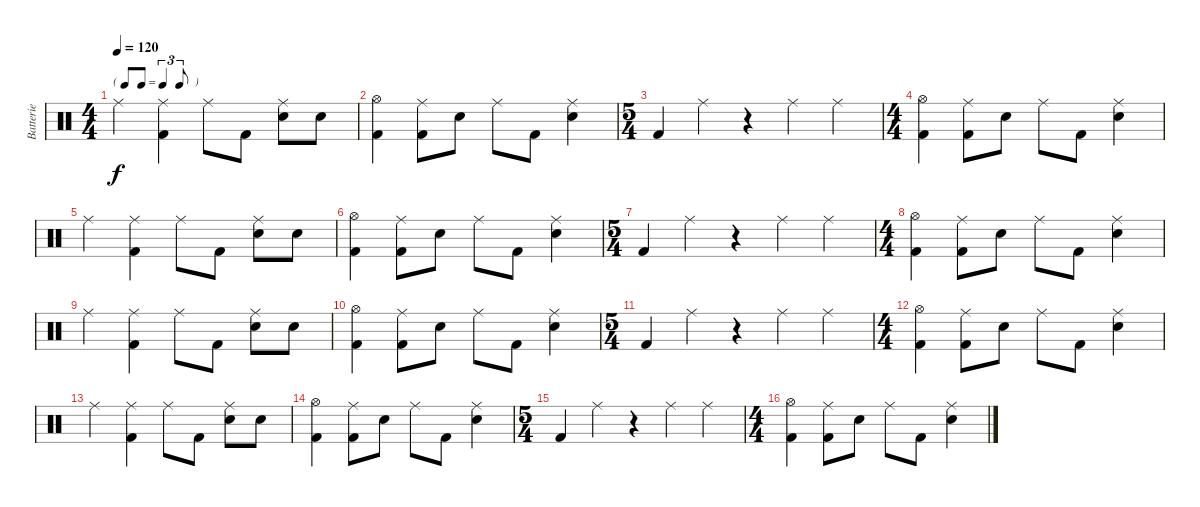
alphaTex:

\track ("Batterie" "Batterie") {instrument percussion}
\staff {score}
\articulation defaults
\ts (4 4)
\tf triplet8th
\tempo 120
\clef neutral
\ks c "Ride (middle)".4{dy f}
("Ride (middle)" "Kick (hit) 2").4 "Ride (middle)".8 "Kick (hit) 2".8 ("Ride (middle)" "Electric Snare (hit)").8 "Electric Snare (hit)".8 |
("Hi-Hat (open)" "Kick (hit) 2").4 ("Ride (middle)" "Kick (hit) 2").8 "Electric Snare (hit)".8 "Ride (middle)".8 "Kick (hit) 2".8 ("Ride (middle)" "Electric Snare (hit)").4 |
\ts (5 4)
"Kick (hit) 2".4 "Ride (middle)".4 r.4 "Ride (middle)".4 "Ride (middle)".4 |
\ts (4 4)
("Hi-Hat (open)" "Kick (hit) 2").4 ("Ride (middle)" "Kick (hit) 2").8 "Electric Snare (hit)".8 "Ride (middle)".8 "Kick (hit) 2".8 ("Ride (middle)" "Electric Snare (hit)").4 |
"Ride (middle)".4 ("Ride (middle)" "Kick (hit) 2").4 "Ride (middle)".8 "Kick (hit) 2".8 ("Ride (middle)" "Electric Snare (hit)").8 "Electric Snare (hit)".8 |
("Hi-Hat (open)" "Kick (hit) 2").4 ("Ride (middle)" "Kick (hit) 2").8 "Electric Snare (hit)".8 "Ride (middle)".8 "Kick (hit) 2".8 ("Ride (middle)" "Electric Snare (hit)").4 |
\ts (5 4)
"Kick (hit) 2".4 "Ride (middle)".4 r.4 "Ride (middle)".4 "Ride (middle)".4 |
\ts (4 4)
("Hi-Hat (open)" "Kick (hit) 2").4 ("Ride (middle)" "Kick (hit) 2").8 "Electric Snare (hit)".8 "Ride (middle)".8 "Kick (hit) 2".8 ("Ride (middle)" "Electric Snare (hit)").4 |
"Ride (middle)".4 ("Ride (middle)" "Kick (hit) 2").4 "Ride (middle)".8 "Kick (hit) 2".8 ("Ride (middle)" "Electric Snare (hit)").8 "Electric Snare (hit)".8 |
("Hi-Hat (open)" "Kick (hit) 2").4 ("Ride (middle)" "Kick (hit) 2").8 "Electric Snare (hit)".8 "Ride (middle)".8 "Kick (hit) 2".8 ("Ride (middle)" "Electric Snare (hit)").4 |
\ts (5 4)
"Kick (hit) 2".4 "Ride (middle)".4 r.4 "Ride (middle)".4 "Ride (middle)".4 |
\ts (4 4)
("Hi-Hat (open)" "Kick (hit) 2").4 ("Ride (middle)" "Kick (hit) 2").8 "Electric Snare (hit)".8 "Ride (middle)".8 "Kick (hit) 2".8 ("Ride (middle)" "Electric Snare (hit)").4 |
"Ride (middle)".4 ("Ride (middle)" "Kick (hit) 2").4 "Ride (middle)".8 "Kick (hit) 2".8 ("Ride (middle)" "Electric Snare (hit)").8 "Electric Snare (hit)".8 |
("Hi-Hat (open)" "Kick (hit) 2").4 ("Ride (middle)" "Kick (hit) 2").8 "Electric Snare (hit)".8 "Ride (middle)".8 "Kick (hit) 2".8 ("Ride (middle)" "Electric Snare (hit)").4 |
\ts (5 4)
"Kick (hit) 2".4 "Ride (middle)".4 r.4 "Ride (middle)".4 "Ride (middle)".4 |
\ts (4 4)
("Hi-Hat (open)" "Kick (hit) 2").4 ("Ride (middle)" "Kick (hit) 2").8 "Electric Snare (hit)".8 "Ride (middle)".8 "Kick (hit) 2".8 ("Ride (middle)" "Electric Snare (hit)").4
